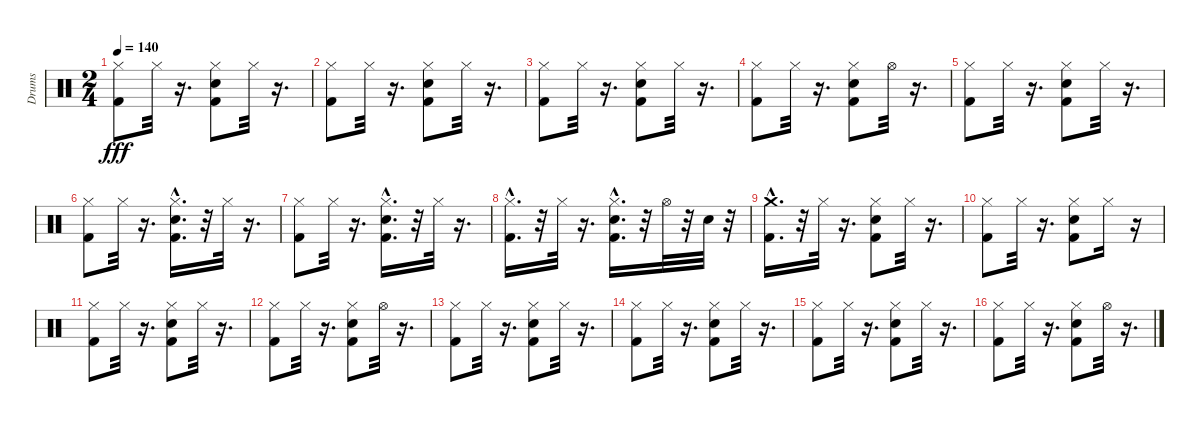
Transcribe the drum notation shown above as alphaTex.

\track ("Drums" "Drums") {instrument percussion}
\staff {score}
\articulation defaults
\ts (2 4)
\tempo 140
\clef neutral
\ks c
("Kick (hit) 2" "Hi-Hat (closed)").8{dy fff} "Hi-Hat (closed)".32 r.16{d} ("Snare (hit) 2" "Kick (hit) 2" "Hi-Hat (closed)").8 "Hi-Hat (closed)".32 r.16{d} |
("Kick (hit) 2" "Hi-Hat (closed)").8 "Hi-Hat (closed)".32 r.16{d} ("Snare (hit) 2" "Kick (hit) 2" "Hi-Hat (closed)").8 "Hi-Hat (closed)".32 r.16{d} |
("Kick (hit) 2" "Hi-Hat (closed)").8 "Hi-Hat (closed)".32 r.16{d} ("Hi-Hat (closed)" "Snare (hit) 2" "Kick (hit) 2").8 "Hi-Hat (closed)".32 r.16{d} |
("Kick (hit) 2" "Hi-Hat (closed)").8 "Hi-Hat (closed)".32 r.16{d} ("Snare (hit) 2" "Kick (hit) 2" "Hi-Hat (closed)").8 "Hi-Hat (open)".32 r.16{d} |
("Kick (hit) 2" "Hi-Hat (closed)").8 "Hi-Hat (closed)".32 r.16{d} ("Kick (hit) 2" "Hi-Hat (closed)" "Snare (hit) 2").8 "Hi-Hat (closed)".32 r.16{d} |
("Kick (hit) 2" "Hi-Hat (closed)").8 "Hi-Hat (closed)".32 r.16{d} ("Snare (hit) 2"{hac} "Kick (hit) 2"{hac} "Hi-Hat (closed)").16{d} r.32 "Hi-Hat (closed)".32 r.16{d} |
("Kick (hit) 2" "Hi-Hat (closed)").8 "Hi-Hat (closed)".32 r.16{d} ("Snare (hit) 2"{hac} "Kick (hit) 2"{hac} "Hi-Hat (closed)").16{d} r.32 "Hi-Hat (closed)".32 r.16{d} |
("Kick (hit) 2"{hac} "Hi-Hat (closed)").16{d} r.32 "Hi-Hat (closed)".32 r.16{d} ("Hi-Hat (closed)" "Snare (hit) 2"{hac} "Kick (hit) 2"{hac}).16{d} r.32 "Hi-Hat (open)".32 r.32 "Snare (hit) 2".32 r.32 |
("Kick (hit) 2"{hac} "Crash medium (hit)").16{d} r.32 "Hi-Hat (closed)".32 r.16{d} ("Hi-Hat (closed)" "Kick (hit) 2" "Snare (hit) 2").8 "Hi-Hat (closed)".32 r.16{d} |
("Kick (hit) 2" "Hi-Hat (closed)").8 "Hi-Hat (closed)".32 r.16{d} ("Snare (hit) 2" "Kick (hit) 2" "Hi-Hat (closed)").8 "Hi-Hat (closed)".16 r.16 |
("Kick (hit) 2" "Hi-Hat (closed)").8 "Hi-Hat (closed)".32 r.16{d} ("Hi-Hat (closed)" "Snare (hit) 2" "Kick (hit) 2").8 "Hi-Hat (closed)".32 r.16{d} |
("Kick (hit) 2" "Hi-Hat (closed)").8 "Hi-Hat (closed)".32 r.16{d} ("Snare (hit) 2" "Hi-Hat (closed)" "Kick (hit) 2").8 "Hi-Hat (open)".32 r.16{d} |
("Kick (hit) 2" "Hi-Hat (closed)").8 "Hi-Hat (closed)".32 r.16{d} ("Snare (hit) 2" "Kick (hit) 2" "Hi-Hat (closed)").8 "Hi-Hat (closed)".32 r.16{d} |
("Kick (hit) 2" "Hi-Hat (closed)").8 "Hi-Hat (closed)".32 r.16{d} ("Kick (hit) 2" "Hi-Hat (closed)" "Snare (hit) 2").8 "Hi-Hat (closed)".32 r.16{d} |
("Kick (hit) 2" "Hi-Hat (closed)").8 "Hi-Hat (closed)".32 r.16{d} ("Hi-Hat (closed)" "Snare (hit) 2" "Kick (hit) 2").8 "Hi-Hat (closed)".32 r.16{d} |
("Kick (hit) 2" "Hi-Hat (closed)").8 "Hi-Hat (closed)".32 r.16{d} ("Snare (hit) 2" "Kick (hit) 2" "Hi-Hat (closed)").8 "Hi-Hat (open)".32 r.16{d}
